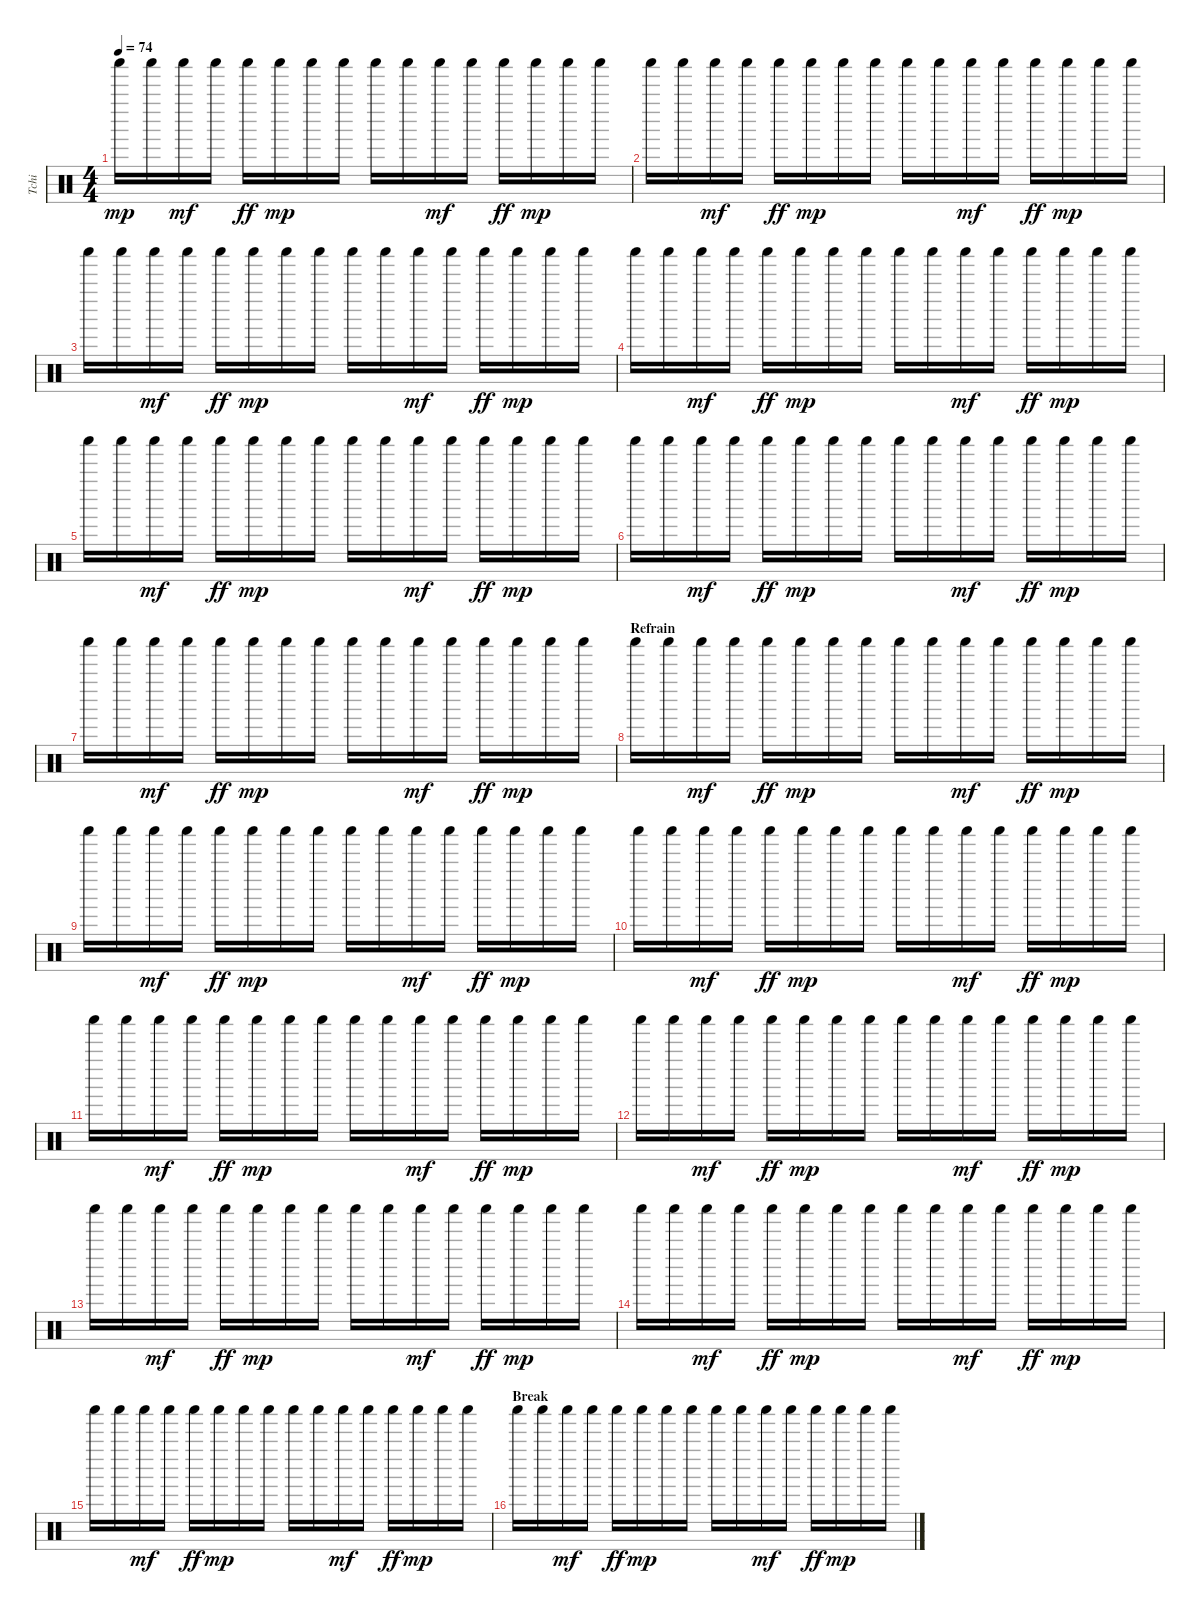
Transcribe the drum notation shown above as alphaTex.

\track ("Tchi" "Tchi") {instrument percussion}
\staff {score}
\articulation defaults
\ts (4 4)
\tempo 74
\clef neutral
\ks c "Shaker (hit)".16{dy mp} "Shaker (hit)".16 "Shaker (hit)".16{dy mf} "Shaker (hit)".16 "Shaker (hit)".16{dy ff} "Shaker (hit)".16{dy mp} "Shaker (hit)".16 "Shaker (hit)".16 "Shaker (hit)".16 "Shaker (hit)".16 "Shaker (hit)".16{dy mf} "Shaker (hit)".16 "Shaker (hit)".16{dy ff} "Shaker (hit)".16{dy mp} "Shaker (hit)".16 "Shaker (hit)".16
|
"Shaker (hit)".16 "Shaker (hit)".16 "Shaker (hit)".16{dy mf} "Shaker (hit)".16 "Shaker (hit)".16{dy ff} "Shaker (hit)".16{dy mp} "Shaker (hit)".16 "Shaker (hit)".16 "Shaker (hit)".16 "Shaker (hit)".16 "Shaker (hit)".16{dy mf} "Shaker (hit)".16 "Shaker (hit)".16{dy ff} "Shaker (hit)".16{dy mp} "Shaker (hit)".16 "Shaker (hit)".16 |
"Shaker (hit)".16 "Shaker (hit)".16 "Shaker (hit)".16{dy mf} "Shaker (hit)".16 "Shaker (hit)".16{dy ff} "Shaker (hit)".16{dy mp} "Shaker (hit)".16 "Shaker (hit)".16 "Shaker (hit)".16 "Shaker (hit)".16 "Shaker (hit)".16{dy mf} "Shaker (hit)".16 "Shaker (hit)".16{dy ff} "Shaker (hit)".16{dy mp} "Shaker (hit)".16 "Shaker (hit)".16 |
"Shaker (hit)".16 "Shaker (hit)".16 "Shaker (hit)".16{dy mf} "Shaker (hit)".16 "Shaker (hit)".16{dy ff} "Shaker (hit)".16{dy mp} "Shaker (hit)".16 "Shaker (hit)".16 "Shaker (hit)".16 "Shaker (hit)".16 "Shaker (hit)".16{dy mf} "Shaker (hit)".16 "Shaker (hit)".16{dy ff} "Shaker (hit)".16{dy mp} "Shaker (hit)".16 "Shaker (hit)".16 |
"Shaker (hit)".16 "Shaker (hit)".16 "Shaker (hit)".16{dy mf} "Shaker (hit)".16 "Shaker (hit)".16{dy ff} "Shaker (hit)".16{dy mp} "Shaker (hit)".16 "Shaker (hit)".16 "Shaker (hit)".16 "Shaker (hit)".16 "Shaker (hit)".16{dy mf} "Shaker (hit)".16 "Shaker (hit)".16{dy ff} "Shaker (hit)".16{dy mp} "Shaker (hit)".16 "Shaker (hit)".16 |
"Shaker (hit)".16 "Shaker (hit)".16 "Shaker (hit)".16{dy mf} "Shaker (hit)".16 "Shaker (hit)".16{dy ff} "Shaker (hit)".16{dy mp} "Shaker (hit)".16 "Shaker (hit)".16 "Shaker (hit)".16 "Shaker (hit)".16 "Shaker (hit)".16{dy mf} "Shaker (hit)".16 "Shaker (hit)".16{dy ff} "Shaker (hit)".16{dy mp} "Shaker (hit)".16 "Shaker (hit)".16 |
"Shaker (hit)".16 "Shaker (hit)".16 "Shaker (hit)".16{dy mf} "Shaker (hit)".16 "Shaker (hit)".16{dy ff} "Shaker (hit)".16{dy mp} "Shaker (hit)".16 "Shaker (hit)".16 "Shaker (hit)".16 "Shaker (hit)".16 "Shaker (hit)".16{dy mf} "Shaker (hit)".16 "Shaker (hit)".16{dy ff} "Shaker (hit)".16{dy mp} "Shaker (hit)".16 "Shaker (hit)".16 |
\section ("" "Refrain")
"Shaker (hit)".16 "Shaker (hit)".16 "Shaker (hit)".16{dy mf} "Shaker (hit)".16 "Shaker (hit)".16{dy ff} "Shaker (hit)".16{dy mp} "Shaker (hit)".16 "Shaker (hit)".16 "Shaker (hit)".16 "Shaker (hit)".16 "Shaker (hit)".16{dy mf} "Shaker (hit)".16 "Shaker (hit)".16{dy ff} "Shaker (hit)".16{dy mp} "Shaker (hit)".16 "Shaker (hit)".16 |
"Shaker (hit)".16 "Shaker (hit)".16 "Shaker (hit)".16{dy mf} "Shaker (hit)".16 "Shaker (hit)".16{dy ff} "Shaker (hit)".16{dy mp} "Shaker (hit)".16 "Shaker (hit)".16 "Shaker (hit)".16 "Shaker (hit)".16 "Shaker (hit)".16{dy mf} "Shaker (hit)".16 "Shaker (hit)".16{dy ff} "Shaker (hit)".16{dy mp} "Shaker (hit)".16 "Shaker (hit)".16 |
"Shaker (hit)".16 "Shaker (hit)".16 "Shaker (hit)".16{dy mf} "Shaker (hit)".16 "Shaker (hit)".16{dy ff} "Shaker (hit)".16{dy mp} "Shaker (hit)".16 "Shaker (hit)".16 "Shaker (hit)".16 "Shaker (hit)".16 "Shaker (hit)".16{dy mf} "Shaker (hit)".16 "Shaker (hit)".16{dy ff} "Shaker (hit)".16{dy mp} "Shaker (hit)".16 "Shaker (hit)".16 |
"Shaker (hit)".16 "Shaker (hit)".16 "Shaker (hit)".16{dy mf} "Shaker (hit)".16 "Shaker (hit)".16{dy ff} "Shaker (hit)".16{dy mp} "Shaker (hit)".16 "Shaker (hit)".16 "Shaker (hit)".16 "Shaker (hit)".16 "Shaker (hit)".16{dy mf} "Shaker (hit)".16 "Shaker (hit)".16{dy ff} "Shaker (hit)".16{dy mp} "Shaker (hit)".16 "Shaker (hit)".16 |
"Shaker (hit)".16 "Shaker (hit)".16 "Shaker (hit)".16{dy mf} "Shaker (hit)".16 "Shaker (hit)".16{dy ff} "Shaker (hit)".16{dy mp} "Shaker (hit)".16 "Shaker (hit)".16 "Shaker (hit)".16 "Shaker (hit)".16 "Shaker (hit)".16{dy mf} "Shaker (hit)".16 "Shaker (hit)".16{dy ff} "Shaker (hit)".16{dy mp} "Shaker (hit)".16 "Shaker (hit)".16 |
"Shaker (hit)".16 "Shaker (hit)".16 "Shaker (hit)".16{dy mf} "Shaker (hit)".16 "Shaker (hit)".16{dy ff} "Shaker (hit)".16{dy mp} "Shaker (hit)".16 "Shaker (hit)".16 "Shaker (hit)".16 "Shaker (hit)".16 "Shaker (hit)".16{dy mf} "Shaker (hit)".16 "Shaker (hit)".16{dy ff} "Shaker (hit)".16{dy mp} "Shaker (hit)".16 "Shaker (hit)".16 |
"Shaker (hit)".16 "Shaker (hit)".16 "Shaker (hit)".16{dy mf} "Shaker (hit)".16 "Shaker (hit)".16{dy ff} "Shaker (hit)".16{dy mp} "Shaker (hit)".16 "Shaker (hit)".16 "Shaker (hit)".16 "Shaker (hit)".16 "Shaker (hit)".16{dy mf} "Shaker (hit)".16 "Shaker (hit)".16{dy ff} "Shaker (hit)".16{dy mp} "Shaker (hit)".16 "Shaker (hit)".16 |
"Shaker (hit)".16 "Shaker (hit)".16 "Shaker (hit)".16{dy mf} "Shaker (hit)".16 "Shaker (hit)".16{dy ff} "Shaker (hit)".16{dy mp} "Shaker (hit)".16 "Shaker (hit)".16 "Shaker (hit)".16 "Shaker (hit)".16 "Shaker (hit)".16{dy mf} "Shaker (hit)".16 "Shaker (hit)".16{dy ff} "Shaker (hit)".16{dy mp} "Shaker (hit)".16 "Shaker (hit)".16 |
\section ("" "Break")
"Shaker (hit)".16 "Shaker (hit)".16 "Shaker (hit)".16{dy mf} "Shaker (hit)".16 "Shaker (hit)".16{dy ff} "Shaker (hit)".16{dy mp} "Shaker (hit)".16 "Shaker (hit)".16 "Shaker (hit)".16 "Shaker (hit)".16 "Shaker (hit)".16{dy mf} "Shaker (hit)".16 "Shaker (hit)".16{dy ff} "Shaker (hit)".16{dy mp} "Shaker (hit)".16 "Shaker (hit)".16
